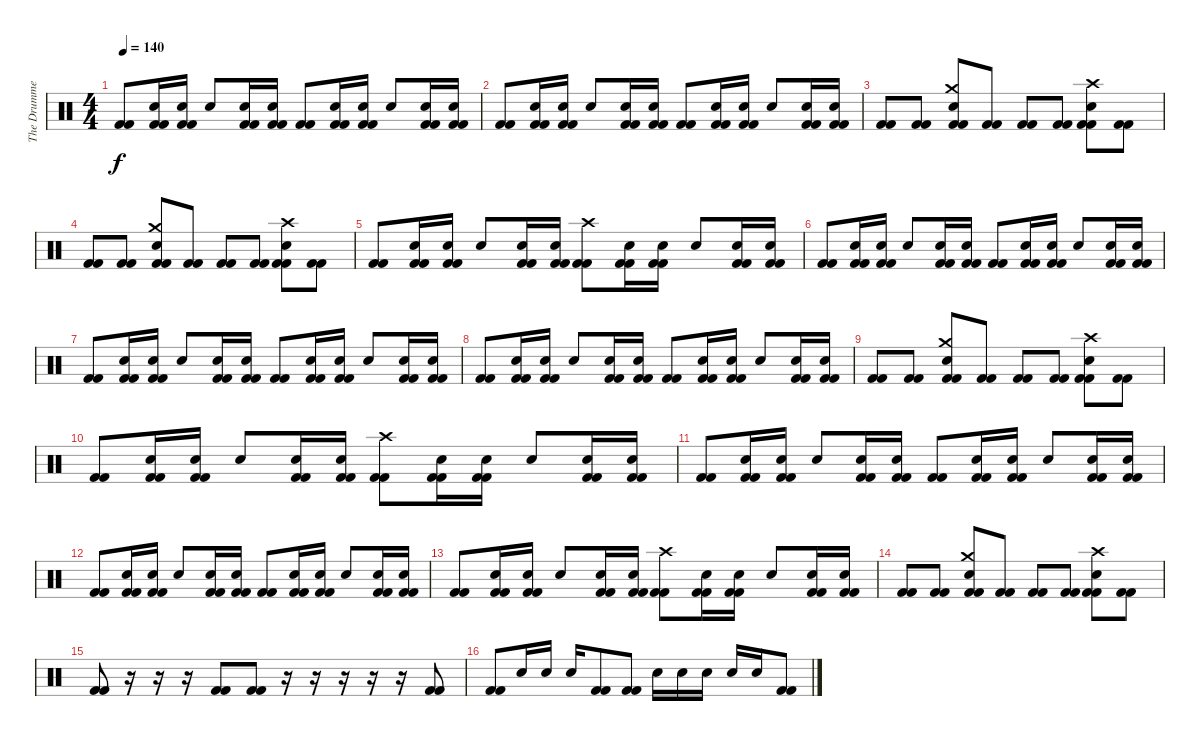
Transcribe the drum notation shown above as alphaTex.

\track ("The Drummer" "The Drumme") {instrument percussion}
\staff {score}
\articulation defaults
\ts (4 4)
\tempo 140
\clef neutral
\ks c
("Kick (hit) 2" "Kick (hit) 2").8{dy f} ("Snare (hit) 2" "Kick (hit) 2" "Kick (hit) 2").16 ("Snare (hit) 2" "Kick (hit) 2" "Kick (hit) 2").16 "Snare (hit) 2".8 ("Snare (hit) 2" "Kick (hit) 2" "Kick (hit) 2").16 ("Snare (hit) 2" "Kick (hit) 2" "Kick (hit) 2").16 ("Kick (hit) 2" "Kick (hit) 2").8 ("Snare (hit) 2" "Kick (hit) 2" "Kick (hit) 2").16 ("Snare (hit) 2" "Kick (hit) 2" "Kick (hit) 2").16 "Snare (hit) 2".8 ("Snare (hit) 2" "Kick (hit) 2" "Kick (hit) 2").16 ("Snare (hit) 2" "Kick (hit) 2" "Kick (hit) 2").16 |
("Kick (hit) 2" "Kick (hit) 2").8 ("Snare (hit) 2" "Kick (hit) 2" "Kick (hit) 2").16 ("Snare (hit) 2" "Kick (hit) 2" "Kick (hit) 2").16 "Snare (hit) 2".8 ("Snare (hit) 2" "Kick (hit) 2" "Kick (hit) 2").16 ("Snare (hit) 2" "Kick (hit) 2" "Kick (hit) 2").16 ("Kick (hit) 2" "Kick (hit) 2").8 ("Snare (hit) 2" "Kick (hit) 2" "Kick (hit) 2").16 ("Snare (hit) 2" "Kick (hit) 2" "Kick (hit) 2").16 "Snare (hit) 2".8 ("Snare (hit) 2" "Kick (hit) 2" "Kick (hit) 2").16 ("Snare (hit) 2" "Kick (hit) 2" "Kick (hit) 2").16 |
("Kick (hit) 2" "Kick (hit) 2").8 ("Kick (hit) 2" "Kick (hit) 2").8 ("Crash medium (hit)" "Electric Snare (hit)" "Kick (hit) 2" "Kick (hit) 2").8 ("Kick (hit) 2" "Kick (hit) 2").8 ("Kick (hit) 2" "Kick (hit) 2").8 ("Kick (hit) 2" "Kick (hit) 2").8 ("Crash high (hit)" "Electric Snare (hit)" "Kick (hit) 2" "Kick (hit) 2").8 ("Kick (hit) 2" "Kick (hit) 2").8 |
("Kick (hit) 2" "Kick (hit) 2").8 ("Kick (hit) 2" "Kick (hit) 2").8 ("Crash medium (hit)" "Electric Snare (hit)" "Kick (hit) 2" "Kick (hit) 2").8 ("Kick (hit) 2" "Kick (hit) 2").8 ("Kick (hit) 2" "Kick (hit) 2").8 ("Kick (hit) 2" "Kick (hit) 2").8 ("Crash high (hit)" "Electric Snare (hit)" "Kick (hit) 2" "Kick (hit) 2").8 ("Kick (hit) 2" "Kick (hit) 2").8 |
("Kick (hit) 2" "Kick (hit) 2").8 ("Snare (hit) 2" "Kick (hit) 2" "Kick (hit) 2").16 ("Snare (hit) 2" "Kick (hit) 2" "Kick (hit) 2").16 "Snare (hit) 2".8 ("Snare (hit) 2" "Kick (hit) 2" "Kick (hit) 2").16 ("Snare (hit) 2" "Kick (hit) 2" "Kick (hit) 2").16 ("Crash high (hit)" "Kick (hit) 2" "Kick (hit) 2").8 ("Snare (hit) 2" "Kick (hit) 2" "Kick (hit) 2").16 ("Snare (hit) 2" "Kick (hit) 2" "Kick (hit) 2").16 "Snare (hit) 2".8 ("Snare (hit) 2" "Kick (hit) 2" "Kick (hit) 2").16 ("Snare (hit) 2" "Kick (hit) 2" "Kick (hit) 2").16 |
("Kick (hit) 2" "Kick (hit) 2").8 ("Snare (hit) 2" "Kick (hit) 2" "Kick (hit) 2").16 ("Snare (hit) 2" "Kick (hit) 2" "Kick (hit) 2").16 "Snare (hit) 2".8 ("Snare (hit) 2" "Kick (hit) 2" "Kick (hit) 2").16 ("Snare (hit) 2" "Kick (hit) 2" "Kick (hit) 2").16 ("Kick (hit) 2" "Kick (hit) 2").8 ("Snare (hit) 2" "Kick (hit) 2" "Kick (hit) 2").16 ("Snare (hit) 2" "Kick (hit) 2" "Kick (hit) 2").16 "Snare (hit) 2".8 ("Snare (hit) 2" "Kick (hit) 2" "Kick (hit) 2").16 ("Snare (hit) 2" "Kick (hit) 2" "Kick (hit) 2").16 |
("Kick (hit) 2" "Kick (hit) 2").8 ("Snare (hit) 2" "Kick (hit) 2" "Kick (hit) 2").16 ("Snare (hit) 2" "Kick (hit) 2" "Kick (hit) 2").16 "Snare (hit) 2".8 ("Snare (hit) 2" "Kick (hit) 2" "Kick (hit) 2").16 ("Snare (hit) 2" "Kick (hit) 2" "Kick (hit) 2").16 ("Kick (hit) 2" "Kick (hit) 2").8 ("Snare (hit) 2" "Kick (hit) 2" "Kick (hit) 2").16 ("Snare (hit) 2" "Kick (hit) 2" "Kick (hit) 2").16 "Snare (hit) 2".8 ("Snare (hit) 2" "Kick (hit) 2" "Kick (hit) 2").16 ("Snare (hit) 2" "Kick (hit) 2" "Kick (hit) 2").16 |
("Kick (hit) 2" "Kick (hit) 2").8 ("Snare (hit) 2" "Kick (hit) 2" "Kick (hit) 2").16 ("Snare (hit) 2" "Kick (hit) 2" "Kick (hit) 2").16 "Snare (hit) 2".8 ("Snare (hit) 2" "Kick (hit) 2" "Kick (hit) 2").16 ("Snare (hit) 2" "Kick (hit) 2" "Kick (hit) 2").16 ("Kick (hit) 2" "Kick (hit) 2").8 ("Snare (hit) 2" "Kick (hit) 2" "Kick (hit) 2").16 ("Snare (hit) 2" "Kick (hit) 2" "Kick (hit) 2").16 "Snare (hit) 2".8 ("Snare (hit) 2" "Kick (hit) 2" "Kick (hit) 2").16 ("Snare (hit) 2" "Kick (hit) 2" "Kick (hit) 2").16 |
("Kick (hit) 2" "Kick (hit) 2").8 ("Kick (hit) 2" "Kick (hit) 2").8 ("Crash medium (hit)" "Electric Snare (hit)" "Kick (hit) 2" "Kick (hit) 2").8 ("Kick (hit) 2" "Kick (hit) 2").8 ("Kick (hit) 2" "Kick (hit) 2").8 ("Kick (hit) 2" "Kick (hit) 2").8 ("Crash high (hit)" "Electric Snare (hit)" "Kick (hit) 2" "Kick (hit) 2").8 ("Kick (hit) 2" "Kick (hit) 2").8 |
("Kick (hit) 2" "Kick (hit) 2").8 ("Snare (hit) 2" "Kick (hit) 2" "Kick (hit) 2").16 ("Snare (hit) 2" "Kick (hit) 2" "Kick (hit) 2").16 "Snare (hit) 2".8 ("Snare (hit) 2" "Kick (hit) 2" "Kick (hit) 2").16 ("Snare (hit) 2" "Kick (hit) 2" "Kick (hit) 2").16 ("Crash high (hit)" "Kick (hit) 2" "Kick (hit) 2").8 ("Snare (hit) 2" "Kick (hit) 2" "Kick (hit) 2").16 ("Snare (hit) 2" "Kick (hit) 2" "Kick (hit) 2").16 "Snare (hit) 2".8 ("Snare (hit) 2" "Kick (hit) 2" "Kick (hit) 2").16 ("Snare (hit) 2" "Kick (hit) 2" "Kick (hit) 2").16 |
("Kick (hit) 2" "Kick (hit) 2").8 ("Snare (hit) 2" "Kick (hit) 2" "Kick (hit) 2").16 ("Snare (hit) 2" "Kick (hit) 2" "Kick (hit) 2").16 "Snare (hit) 2".8 ("Snare (hit) 2" "Kick (hit) 2" "Kick (hit) 2").16 ("Snare (hit) 2" "Kick (hit) 2" "Kick (hit) 2").16 ("Kick (hit) 2" "Kick (hit) 2").8 ("Snare (hit) 2" "Kick (hit) 2" "Kick (hit) 2").16 ("Snare (hit) 2" "Kick (hit) 2" "Kick (hit) 2").16 "Snare (hit) 2".8 ("Snare (hit) 2" "Kick (hit) 2" "Kick (hit) 2").16 ("Snare (hit) 2" "Kick (hit) 2" "Kick (hit) 2").16 |
("Kick (hit) 2" "Kick (hit) 2").8 ("Snare (hit) 2" "Kick (hit) 2" "Kick (hit) 2").16 ("Snare (hit) 2" "Kick (hit) 2" "Kick (hit) 2").16 "Snare (hit) 2".8 ("Snare (hit) 2" "Kick (hit) 2" "Kick (hit) 2").16 ("Snare (hit) 2" "Kick (hit) 2" "Kick (hit) 2").16 ("Kick (hit) 2" "Kick (hit) 2").8 ("Snare (hit) 2" "Kick (hit) 2" "Kick (hit) 2").16 ("Snare (hit) 2" "Kick (hit) 2" "Kick (hit) 2").16 "Snare (hit) 2".8 ("Snare (hit) 2" "Kick (hit) 2" "Kick (hit) 2").16 ("Snare (hit) 2" "Kick (hit) 2" "Kick (hit) 2").16 |
("Kick (hit) 2" "Kick (hit) 2").8 ("Snare (hit) 2" "Kick (hit) 2" "Kick (hit) 2").16 ("Snare (hit) 2" "Kick (hit) 2" "Kick (hit) 2").16 "Snare (hit) 2".8 ("Snare (hit) 2" "Kick (hit) 2" "Kick (hit) 2").16 ("Snare (hit) 2" "Kick (hit) 2" "Kick (hit) 2").16 ("Crash high (hit)" "Kick (hit) 2" "Kick (hit) 2").8 ("Snare (hit) 2" "Kick (hit) 2" "Kick (hit) 2").16 ("Snare (hit) 2" "Kick (hit) 2" "Kick (hit) 2").16 "Snare (hit) 2".8 ("Snare (hit) 2" "Kick (hit) 2" "Kick (hit) 2").16 ("Snare (hit) 2" "Kick (hit) 2" "Kick (hit) 2").16 |
("Kick (hit) 2" "Kick (hit) 2").8 ("Kick (hit) 2" "Kick (hit) 2").8 ("Crash medium (hit)" "Electric Snare (hit)" "Kick (hit) 2" "Kick (hit) 2").8 ("Kick (hit) 2" "Kick (hit) 2").8 ("Kick (hit) 2" "Kick (hit) 2").8 ("Kick (hit) 2" "Kick (hit) 2").8 ("Crash high (hit)" "Electric Snare (hit)" "Kick (hit) 2" "Kick (hit) 2").8 ("Kick (hit) 2" "Kick (hit) 2").8 |
("Kick (hit) 2" "Kick (hit) 2").8 r.16 r.16 r.16 ("Kick (hit) 2" "Kick (hit) 2").8 ("Kick (hit) 2" "Kick (hit) 2").8 r.16 r.16 r.16 r.16 r.16 ("Kick (hit) 2" "Kick (hit) 2").8 |
("Kick (hit) 2" "Kick (hit) 2").8 "Electric Snare (hit)".16 "Electric Snare (hit)".16 "Electric Snare (hit)".16 ("Kick (hit) 2" "Kick (hit) 2").8 ("Kick (hit) 2" "Kick (hit) 2").8 "Electric Snare (hit)".16 "Electric Snare (hit)".16 "Electric Snare (hit)".16 "Electric Snare (hit)".16 "Electric Snare (hit)".16 ("Kick (hit) 2" "Kick (hit) 2").8
